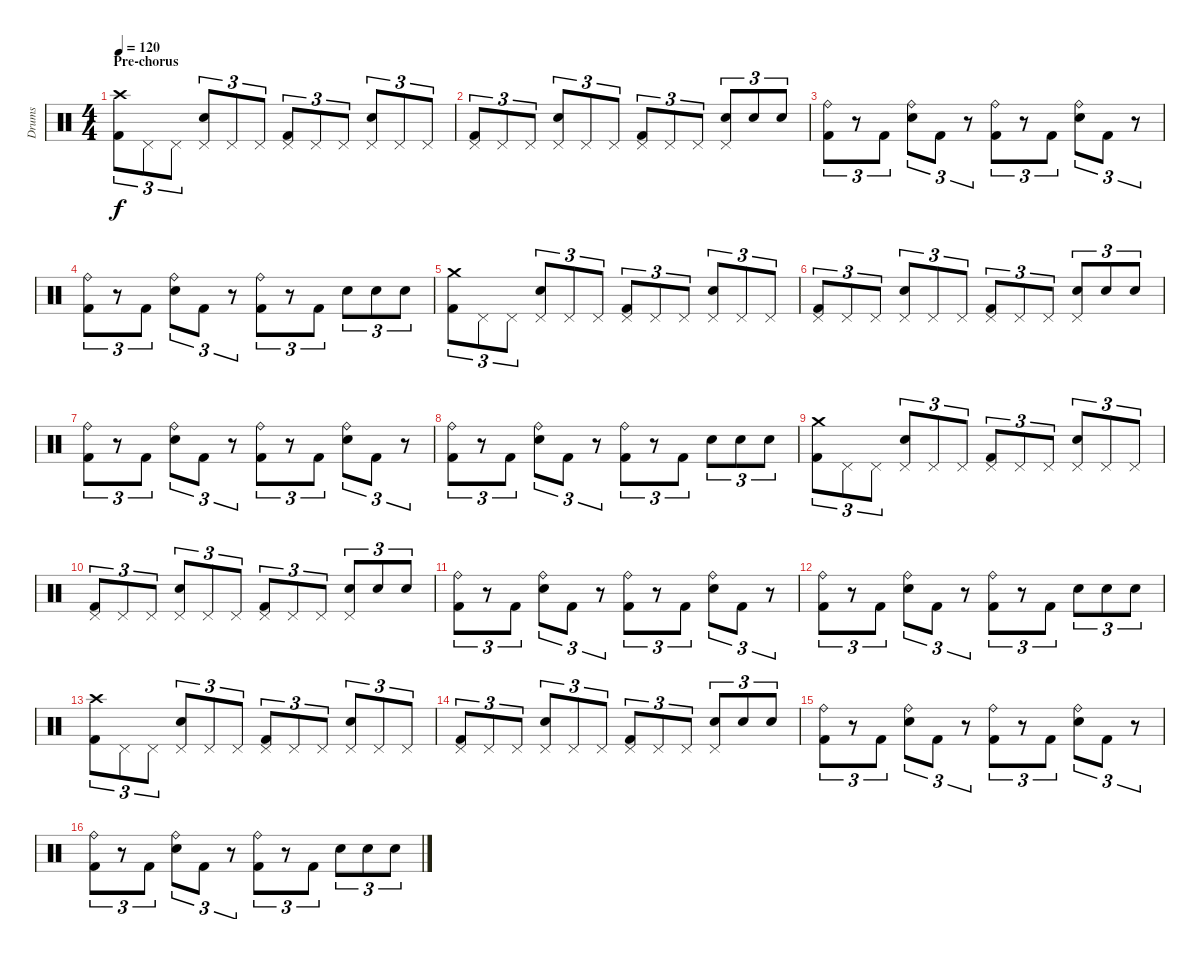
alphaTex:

\track ("Drums" "Drums") {instrument percussion}
\staff {score}
\articulation defaults
\ts (4 4)
\section ("" "Pre-chorus")
\tempo 120
\clef neutral
\ks c
("Crash high (hit)" "Kick (hit) 2").8{tu (3 2) dy f} "Pedal Hi-Hat (hit)".8{tu (3 2)} "Pedal Hi-Hat (hit)".8{tu (3 2)} ("Pedal Hi-Hat (hit)" "Snare (hit) 2").8{tu (3 2)} "Pedal Hi-Hat (hit)".8{tu (3 2)} "Pedal Hi-Hat (hit)".8{tu (3 2)} ("Pedal Hi-Hat (hit)" "Kick (hit) 2").8{tu (3 2)} "Pedal Hi-Hat (hit)".8{tu (3 2)} "Pedal Hi-Hat (hit)".8{tu (3 2)} ("Pedal Hi-Hat (hit)" "Snare (hit) 2").8{tu (3 2)} "Pedal Hi-Hat (hit)".8{tu (3 2)} "Pedal Hi-Hat (hit)".8{tu (3 2)} |
("Pedal Hi-Hat (hit)" "Kick (hit) 2").8{tu (3 2)} "Pedal Hi-Hat (hit)".8{tu (3 2)} "Pedal Hi-Hat (hit)".8{tu (3 2)} ("Pedal Hi-Hat (hit)" "Snare (hit) 2").8{tu (3 2)} "Pedal Hi-Hat (hit)".8{tu (3 2)} "Pedal Hi-Hat (hit)".8{tu (3 2)} ("Pedal Hi-Hat (hit)" "Kick (hit) 2").8{tu (3 2)} "Pedal Hi-Hat (hit)".8{tu (3 2)} "Pedal Hi-Hat (hit)".8{tu (3 2)} ("Pedal Hi-Hat (hit)" "Snare (hit) 2").8{tu (3 2)} "Snare (hit) 2".8{tu (3 2)} "Snare (hit) 2".8{tu (3 2)} |
("Ride (bell)" "Kick (hit) 2").8{tu (3 2)} r.8{tu (3 2)} "Kick (hit) 2".8{tu (3 2)} ("Ride (bell)" "Snare (hit) 2").8{tu (3 2)} "Kick (hit) 2".8{tu (3 2)} r.8{tu (3 2)} ("Ride (bell)" "Kick (hit) 2").8{tu (3 2)} r.8{tu (3 2)} "Kick (hit) 2".8{tu (3 2)} ("Ride (bell)" "Snare (hit) 2").8{tu (3 2)} "Kick (hit) 2".8{tu (3 2)} r.8{tu (3 2)} |
("Ride (bell)" "Kick (hit) 2").8{tu (3 2)} r.8{tu (3 2)} "Kick (hit) 2".8{tu (3 2)} ("Ride (bell)" "Snare (hit) 2").8{tu (3 2)} "Kick (hit) 2".8{tu (3 2)} r.8{tu (3 2)} ("Ride (bell)" "Kick (hit) 2").8{tu (3 2)} r.8{tu (3 2)} "Kick (hit) 2".8{tu (3 2)} "Snare (hit) 2".8{tu (3 2)} "Snare (hit) 2".8{tu (3 2)} "Snare (hit) 2".8{tu (3 2)} |
("Crash medium (hit)" "Kick (hit) 2").8{tu (3 2)} "Pedal Hi-Hat (hit)".8{tu (3 2)} "Pedal Hi-Hat (hit)".8{tu (3 2)} ("Pedal Hi-Hat (hit)" "Snare (hit) 2").8{tu (3 2)} "Pedal Hi-Hat (hit)".8{tu (3 2)} "Pedal Hi-Hat (hit)".8{tu (3 2)} ("Pedal Hi-Hat (hit)" "Kick (hit) 2").8{tu (3 2)} "Pedal Hi-Hat (hit)".8{tu (3 2)} "Pedal Hi-Hat (hit)".8{tu (3 2)} ("Pedal Hi-Hat (hit)" "Snare (hit) 2").8{tu (3 2)} "Pedal Hi-Hat (hit)".8{tu (3 2)} "Pedal Hi-Hat (hit)".8{tu (3 2)} |
("Pedal Hi-Hat (hit)" "Kick (hit) 2").8{tu (3 2)} "Pedal Hi-Hat (hit)".8{tu (3 2)} "Pedal Hi-Hat (hit)".8{tu (3 2)} ("Pedal Hi-Hat (hit)" "Snare (hit) 2").8{tu (3 2)} "Pedal Hi-Hat (hit)".8{tu (3 2)} "Pedal Hi-Hat (hit)".8{tu (3 2)} ("Pedal Hi-Hat (hit)" "Kick (hit) 2").8{tu (3 2)} "Pedal Hi-Hat (hit)".8{tu (3 2)} "Pedal Hi-Hat (hit)".8{tu (3 2)} ("Pedal Hi-Hat (hit)" "Snare (hit) 2").8{tu (3 2)} "Snare (hit) 2".8{tu (3 2)} "Snare (hit) 2".8{tu (3 2)} |
("Ride (bell)" "Kick (hit) 2").8{tu (3 2)} r.8{tu (3 2)} "Kick (hit) 2".8{tu (3 2)} ("Ride (bell)" "Snare (hit) 2").8{tu (3 2)} "Kick (hit) 2".8{tu (3 2)} r.8{tu (3 2)} ("Ride (bell)" "Kick (hit) 2").8{tu (3 2)} r.8{tu (3 2)} "Kick (hit) 2".8{tu (3 2)} ("Ride (bell)" "Snare (hit) 2").8{tu (3 2)} "Kick (hit) 2".8{tu (3 2)} r.8{tu (3 2)} |
("Ride (bell)" "Kick (hit) 2").8{tu (3 2)} r.8{tu (3 2)} "Kick (hit) 2".8{tu (3 2)} ("Ride (bell)" "Snare (hit) 2").8{tu (3 2)} "Kick (hit) 2".8{tu (3 2)} r.8{tu (3 2)} ("Ride (bell)" "Kick (hit) 2").8{tu (3 2)} r.8{tu (3 2)} "Kick (hit) 2".8{tu (3 2)} "Snare (hit) 2".8{tu (3 2)} "Snare (hit) 2".8{tu (3 2)} "Snare (hit) 2".8{tu (3 2)} |
("Crash medium (hit)" "Kick (hit) 2").8{tu (3 2)} "Pedal Hi-Hat (hit)".8{tu (3 2)} "Pedal Hi-Hat (hit)".8{tu (3 2)} ("Pedal Hi-Hat (hit)" "Snare (hit) 2").8{tu (3 2)} "Pedal Hi-Hat (hit)".8{tu (3 2)} "Pedal Hi-Hat (hit)".8{tu (3 2)} ("Pedal Hi-Hat (hit)" "Kick (hit) 2").8{tu (3 2)} "Pedal Hi-Hat (hit)".8{tu (3 2)} "Pedal Hi-Hat (hit)".8{tu (3 2)} ("Pedal Hi-Hat (hit)" "Snare (hit) 2").8{tu (3 2)} "Pedal Hi-Hat (hit)".8{tu (3 2)} "Pedal Hi-Hat (hit)".8{tu (3 2)} |
("Pedal Hi-Hat (hit)" "Kick (hit) 2").8{tu (3 2)} "Pedal Hi-Hat (hit)".8{tu (3 2)} "Pedal Hi-Hat (hit)".8{tu (3 2)} ("Pedal Hi-Hat (hit)" "Snare (hit) 2").8{tu (3 2)} "Pedal Hi-Hat (hit)".8{tu (3 2)} "Pedal Hi-Hat (hit)".8{tu (3 2)} ("Pedal Hi-Hat (hit)" "Kick (hit) 2").8{tu (3 2)} "Pedal Hi-Hat (hit)".8{tu (3 2)} "Pedal Hi-Hat (hit)".8{tu (3 2)} ("Pedal Hi-Hat (hit)" "Snare (hit) 2").8{tu (3 2)} "Snare (hit) 2".8{tu (3 2)} "Snare (hit) 2".8{tu (3 2)} |
("Ride (bell)" "Kick (hit) 2").8{tu (3 2)} r.8{tu (3 2)} "Kick (hit) 2".8{tu (3 2)} ("Ride (bell)" "Snare (hit) 2").8{tu (3 2)} "Kick (hit) 2".8{tu (3 2)} r.8{tu (3 2)} ("Ride (bell)" "Kick (hit) 2").8{tu (3 2)} r.8{tu (3 2)} "Kick (hit) 2".8{tu (3 2)} ("Ride (bell)" "Snare (hit) 2").8{tu (3 2)} "Kick (hit) 2".8{tu (3 2)} r.8{tu (3 2)} |
("Ride (bell)" "Kick (hit) 2").8{tu (3 2)} r.8{tu (3 2)} "Kick (hit) 2".8{tu (3 2)} ("Ride (bell)" "Snare (hit) 2").8{tu (3 2)} "Kick (hit) 2".8{tu (3 2)} r.8{tu (3 2)} ("Ride (bell)" "Kick (hit) 2").8{tu (3 2)} r.8{tu (3 2)} "Kick (hit) 2".8{tu (3 2)} "Snare (hit) 2".8{tu (3 2)} "Snare (hit) 2".8{tu (3 2)} "Snare (hit) 2".8{tu (3 2)} |
("Crash high (hit)" "Kick (hit) 2").8{tu (3 2)} "Pedal Hi-Hat (hit)".8{tu (3 2)} "Pedal Hi-Hat (hit)".8{tu (3 2)} ("Pedal Hi-Hat (hit)" "Snare (hit) 2").8{tu (3 2)} "Pedal Hi-Hat (hit)".8{tu (3 2)} "Pedal Hi-Hat (hit)".8{tu (3 2)} ("Pedal Hi-Hat (hit)" "Kick (hit) 2").8{tu (3 2)} "Pedal Hi-Hat (hit)".8{tu (3 2)} "Pedal Hi-Hat (hit)".8{tu (3 2)} ("Pedal Hi-Hat (hit)" "Snare (hit) 2").8{tu (3 2)} "Pedal Hi-Hat (hit)".8{tu (3 2)} "Pedal Hi-Hat (hit)".8{tu (3 2)} |
("Pedal Hi-Hat (hit)" "Kick (hit) 2").8{tu (3 2)} "Pedal Hi-Hat (hit)".8{tu (3 2)} "Pedal Hi-Hat (hit)".8{tu (3 2)} ("Pedal Hi-Hat (hit)" "Snare (hit) 2").8{tu (3 2)} "Pedal Hi-Hat (hit)".8{tu (3 2)} "Pedal Hi-Hat (hit)".8{tu (3 2)} ("Pedal Hi-Hat (hit)" "Kick (hit) 2").8{tu (3 2)} "Pedal Hi-Hat (hit)".8{tu (3 2)} "Pedal Hi-Hat (hit)".8{tu (3 2)} ("Pedal Hi-Hat (hit)" "Snare (hit) 2").8{tu (3 2)} "Snare (hit) 2".8{tu (3 2)} "Snare (hit) 2".8{tu (3 2)} |
("Ride (bell)" "Kick (hit) 2").8{tu (3 2)} r.8{tu (3 2)} "Kick (hit) 2".8{tu (3 2)} ("Ride (bell)" "Snare (hit) 2").8{tu (3 2)} "Kick (hit) 2".8{tu (3 2)} r.8{tu (3 2)} ("Ride (bell)" "Kick (hit) 2").8{tu (3 2)} r.8{tu (3 2)} "Kick (hit) 2".8{tu (3 2)} ("Ride (bell)" "Snare (hit) 2").8{tu (3 2)} "Kick (hit) 2".8{tu (3 2)} r.8{tu (3 2)} |
("Ride (bell)" "Kick (hit) 2").8{tu (3 2)} r.8{tu (3 2)} "Kick (hit) 2".8{tu (3 2)} ("Ride (bell)" "Snare (hit) 2").8{tu (3 2)} "Kick (hit) 2".8{tu (3 2)} r.8{tu (3 2)} ("Ride (bell)" "Kick (hit) 2").8{tu (3 2)} r.8{tu (3 2)} "Kick (hit) 2".8{tu (3 2)} "Snare (hit) 2".8{tu (3 2)} "Snare (hit) 2".8{tu (3 2)} "Snare (hit) 2".8{tu (3 2)}
